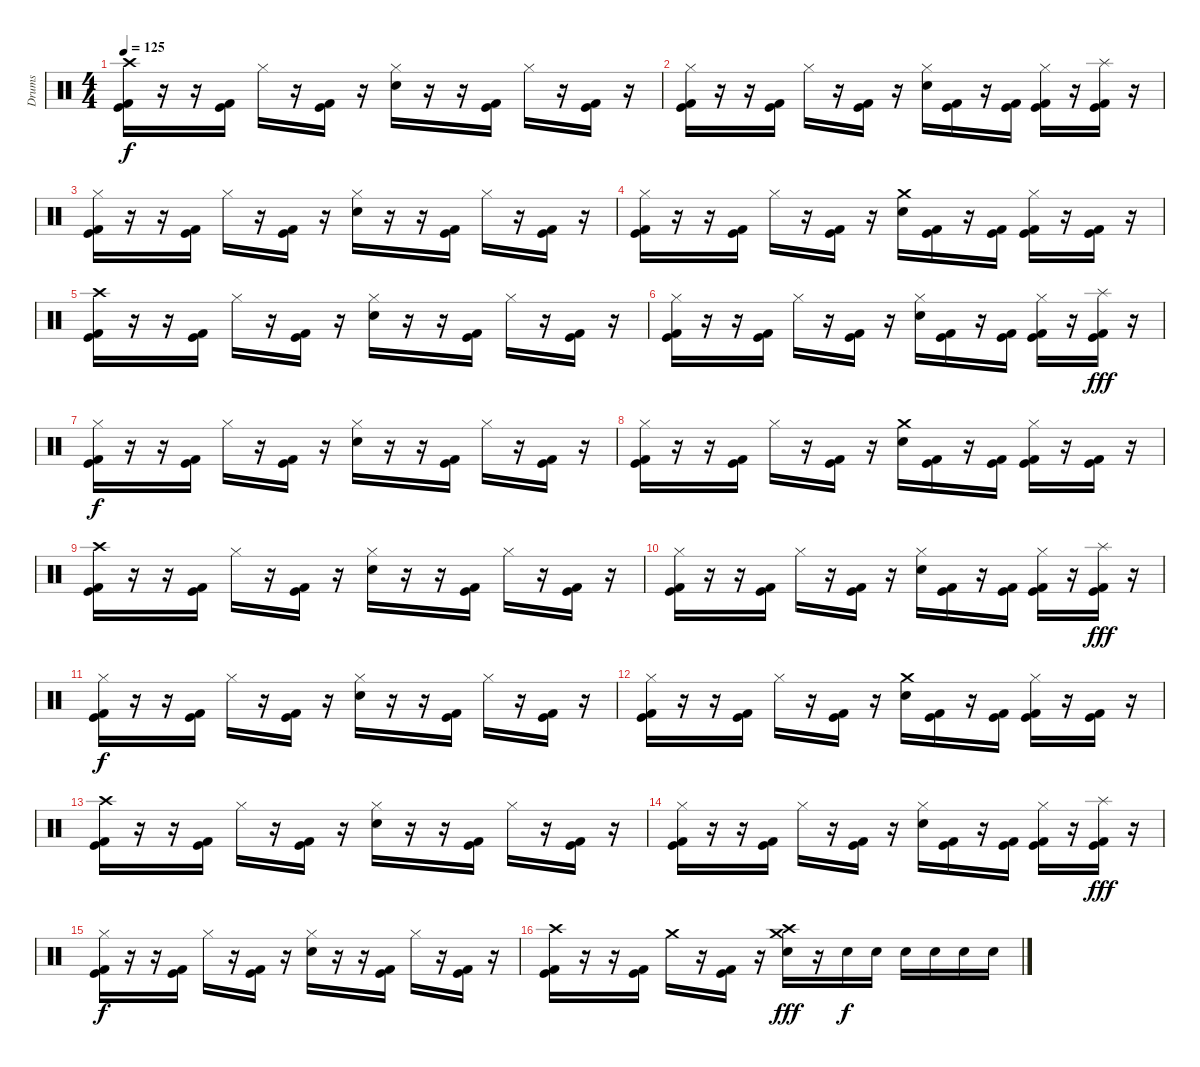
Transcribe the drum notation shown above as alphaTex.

\track ("Drums" "Drums") {instrument percussion}
\staff {score}
\articulation defaults
\ts (4 4)
\tempo 125
\clef neutral
\ks c
("Crash high (hit)" "Kick (hit)" "Kick (hit) 2").16{dy f} r.16 r.16 ("Kick (hit)" "Kick (hit) 2").16 "Hi-Hat (closed)".16 r.16 ("Kick (hit)" "Kick (hit) 2").16 r.16 ("Hi-Hat (closed)" "Electric Snare (hit)").16 r.16 r.16 ("Kick (hit)" "Kick (hit) 2").16 "Hi-Hat (closed)".16 r.16 ("Kick (hit)" "Kick (hit) 2").16 r.16 |
("Hi-Hat (closed)" "Kick (hit)" "Kick (hit) 2").16 r.16 r.16 ("Kick (hit)" "Kick (hit) 2").16 "Hi-Hat (closed)".16 r.16 ("Kick (hit)" "Kick (hit) 2").16 r.16 ("Hi-Hat (closed)" "Electric Snare (hit)").16 ("Kick (hit)" "Kick (hit) 2").16 r.16 ("Kick (hit)" "Kick (hit) 2").16 ("Hi-Hat (closed)" "Kick (hit)" "Kick (hit) 2").16 r.16 ("Splash (hit)" "Kick (hit)" "Kick (hit) 2").16 r.16 |
("Hi-Hat (closed)" "Kick (hit)" "Kick (hit) 2").16 r.16 r.16 ("Kick (hit)" "Kick (hit) 2").16 "Hi-Hat (closed)".16 r.16 ("Kick (hit)" "Kick (hit) 2").16 r.16 ("Hi-Hat (closed)" "Electric Snare (hit)").16 r.16 r.16 ("Kick (hit)" "Kick (hit) 2").16 "Hi-Hat (closed)".16 r.16 ("Kick (hit)" "Kick (hit) 2").16 r.16 |
("Hi-Hat (closed)" "Kick (hit)" "Kick (hit) 2").16 r.16 r.16 ("Kick (hit)" "Kick (hit) 2").16 "Hi-Hat (closed)".16 r.16 ("Kick (hit)" "Kick (hit) 2").16 r.16 ("Crash medium (hit)" "Electric Snare (hit)").16 ("Kick (hit)" "Kick (hit) 2").16 r.16 ("Kick (hit)" "Kick (hit) 2").16 ("Hi-Hat (closed)" "Kick (hit)" "Kick (hit) 2").16 r.16 ("Kick (hit)" "Kick (hit) 2").16 r.16 |
("Crash high (hit)" "Kick (hit)" "Kick (hit) 2").16 r.16 r.16 ("Kick (hit)" "Kick (hit) 2").16 "Hi-Hat (closed)".16 r.16 ("Kick (hit)" "Kick (hit) 2").16 r.16 ("Hi-Hat (closed)" "Electric Snare (hit)").16 r.16 r.16 ("Kick (hit)" "Kick (hit) 2").16 "Hi-Hat (closed)".16 r.16 ("Kick (hit)" "Kick (hit) 2").16 r.16 |
("Hi-Hat (closed)" "Kick (hit)" "Kick (hit) 2").16 r.16 r.16 ("Kick (hit)" "Kick (hit) 2").16 "Hi-Hat (closed)".16 r.16 ("Kick (hit)" "Kick (hit) 2").16 r.16 ("Hi-Hat (closed)" "Electric Snare (hit)").16 ("Kick (hit)" "Kick (hit) 2").16 r.16 ("Kick (hit)" "Kick (hit) 2").16 ("Hi-Hat (closed)" "Kick (hit)" "Kick (hit) 2").16 r.16 ("Splash (hit)" "Kick (hit)" "Kick (hit) 2").16{dy fff} r.16 |
("Hi-Hat (closed)" "Kick (hit)" "Kick (hit) 2").16{dy f} r.16 r.16 ("Kick (hit)" "Kick (hit) 2").16 "Hi-Hat (closed)".16 r.16 ("Kick (hit)" "Kick (hit) 2").16 r.16 ("Hi-Hat (closed)" "Electric Snare (hit)").16 r.16 r.16 ("Kick (hit)" "Kick (hit) 2").16 "Hi-Hat (closed)".16 r.16 ("Kick (hit)" "Kick (hit) 2").16 r.16 |
("Hi-Hat (closed)" "Kick (hit)" "Kick (hit) 2").16 r.16 r.16 ("Kick (hit)" "Kick (hit) 2").16 "Hi-Hat (closed)".16 r.16 ("Kick (hit)" "Kick (hit) 2").16 r.16 ("Crash medium (hit)" "Electric Snare (hit)").16 ("Kick (hit)" "Kick (hit) 2").16 r.16 ("Kick (hit)" "Kick (hit) 2").16 ("Hi-Hat (closed)" "Kick (hit)" "Kick (hit) 2").16 r.16 ("Kick (hit)" "Kick (hit) 2").16 r.16 |
("Crash high (hit)" "Kick (hit)" "Kick (hit) 2").16 r.16 r.16 ("Kick (hit)" "Kick (hit) 2").16 "Hi-Hat (closed)".16 r.16 ("Kick (hit)" "Kick (hit) 2").16 r.16 ("Hi-Hat (closed)" "Electric Snare (hit)").16 r.16 r.16 ("Kick (hit)" "Kick (hit) 2").16 "Hi-Hat (closed)".16 r.16 ("Kick (hit)" "Kick (hit) 2").16 r.16 |
("Hi-Hat (closed)" "Kick (hit)" "Kick (hit) 2").16 r.16 r.16 ("Kick (hit)" "Kick (hit) 2").16 "Hi-Hat (closed)".16 r.16 ("Kick (hit)" "Kick (hit) 2").16 r.16 ("Hi-Hat (closed)" "Electric Snare (hit)").16 ("Kick (hit)" "Kick (hit) 2").16 r.16 ("Kick (hit)" "Kick (hit) 2").16 ("Hi-Hat (closed)" "Kick (hit)" "Kick (hit) 2").16 r.16 ("Splash (hit)" "Kick (hit)" "Kick (hit) 2").16{dy fff} r.16 |
("Hi-Hat (closed)" "Kick (hit)" "Kick (hit) 2").16{dy f} r.16 r.16 ("Kick (hit)" "Kick (hit) 2").16 "Hi-Hat (closed)".16 r.16 ("Kick (hit)" "Kick (hit) 2").16 r.16 ("Hi-Hat (closed)" "Electric Snare (hit)").16 r.16 r.16 ("Kick (hit)" "Kick (hit) 2").16 "Hi-Hat (closed)".16 r.16 ("Kick (hit)" "Kick (hit) 2").16 r.16 |
("Hi-Hat (closed)" "Kick (hit)" "Kick (hit) 2").16 r.16 r.16 ("Kick (hit)" "Kick (hit) 2").16 "Hi-Hat (closed)".16 r.16 ("Kick (hit)" "Kick (hit) 2").16 r.16 ("Crash medium (hit)" "Electric Snare (hit)").16 ("Kick (hit)" "Kick (hit) 2").16 r.16 ("Kick (hit)" "Kick (hit) 2").16 ("Hi-Hat (closed)" "Kick (hit)" "Kick (hit) 2").16 r.16 ("Kick (hit)" "Kick (hit) 2").16 r.16 |
("Crash high (hit)" "Kick (hit)" "Kick (hit) 2").16 r.16 r.16 ("Kick (hit)" "Kick (hit) 2").16 "Hi-Hat (closed)".16 r.16 ("Kick (hit)" "Kick (hit) 2").16 r.16 ("Hi-Hat (closed)" "Electric Snare (hit)").16 r.16 r.16 ("Kick (hit)" "Kick (hit) 2").16 "Hi-Hat (closed)".16 r.16 ("Kick (hit)" "Kick (hit) 2").16 r.16 |
("Hi-Hat (closed)" "Kick (hit)" "Kick (hit) 2").16 r.16 r.16 ("Kick (hit)" "Kick (hit) 2").16 "Hi-Hat (closed)".16 r.16 ("Kick (hit)" "Kick (hit) 2").16 r.16 ("Hi-Hat (closed)" "Electric Snare (hit)").16 ("Kick (hit)" "Kick (hit) 2").16 r.16 ("Kick (hit)" "Kick (hit) 2").16 ("Hi-Hat (closed)" "Kick (hit)" "Kick (hit) 2").16 r.16 ("Splash (hit)" "Kick (hit)" "Kick (hit) 2").16{dy fff} r.16 |
("Hi-Hat (closed)" "Kick (hit)" "Kick (hit) 2").16{dy f} r.16 r.16 ("Kick (hit)" "Kick (hit) 2").16 "Hi-Hat (closed)".16 r.16 ("Kick (hit)" "Kick (hit) 2").16 r.16 ("Hi-Hat (closed)" "Electric Snare (hit)").16 r.16 r.16 ("Kick (hit)" "Kick (hit) 2").16 "Hi-Hat (closed)".16 r.16 ("Kick (hit)" "Kick (hit) 2").16 r.16 |
("Crash high (hit)" "Kick (hit)" "Kick (hit) 2").16 r.16 r.16 ("Kick (hit)" "Kick (hit) 2").16 "Crash medium (hit)".16 r.16 ("Kick (hit)" "Kick (hit) 2").16 r.16 ("Crash high (hit)" "Crash medium (hit)" "Electric Snare (hit)").16{dy fff} r.16 "Electric Snare (hit)".16{dy f} "Electric Snare (hit)".16 "Electric Snare (hit)".16 "Electric Snare (hit)".16 "Electric Snare (hit)".16 "Electric Snare (hit)".16
